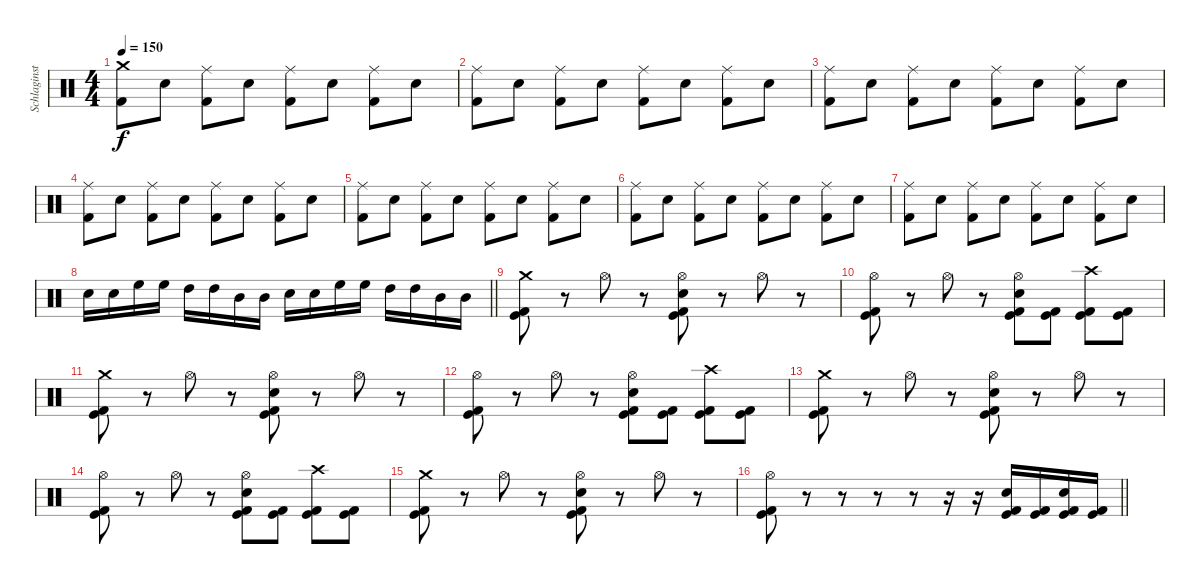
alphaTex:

\track ("Schlaginstrumente - Auswahl" "Schlaginst") {instrument percussion}
\staff {score}
\articulation defaults
\ts (4 4)
\tempo 150
\clef neutral
\ks c
("Crash medium (hit)" "Kick (hit) 2").8{dy f} "Electric Snare (hit)".8 ("Ride (middle)" "Kick (hit) 2").8 "Electric Snare (hit)".8 ("Ride (middle)" "Kick (hit) 2").8 "Electric Snare (hit)".8 ("Ride (middle)" "Kick (hit) 2").8 "Electric Snare (hit)".8 |
("Ride (middle)" "Kick (hit) 2").8 "Electric Snare (hit)".8 ("Ride (middle)" "Kick (hit) 2").8 "Electric Snare (hit)".8 ("Ride (middle)" "Kick (hit) 2").8 "Electric Snare (hit)".8 ("Ride (middle)" "Kick (hit) 2").8 "Electric Snare (hit)".8 |
("Ride (middle)" "Kick (hit) 2").8 "Electric Snare (hit)".8 ("Ride (middle)" "Kick (hit) 2").8 "Electric Snare (hit)".8 ("Ride (middle)" "Kick (hit) 2").8 "Electric Snare (hit)".8 ("Ride (middle)" "Kick (hit) 2").8 "Electric Snare (hit)".8 |
("Ride (middle)" "Kick (hit) 2").8 "Electric Snare (hit)".8 ("Ride (middle)" "Kick (hit) 2").8 "Electric Snare (hit)".8 ("Ride (middle)" "Kick (hit) 2").8 "Electric Snare (hit)".8 ("Ride (middle)" "Kick (hit) 2").8 "Electric Snare (hit)".8 |
("Ride (middle)" "Kick (hit) 2").8 "Electric Snare (hit)".8 ("Ride (middle)" "Kick (hit) 2").8 "Electric Snare (hit)".8 ("Ride (middle)" "Kick (hit) 2").8 "Electric Snare (hit)".8 ("Ride (middle)" "Kick (hit) 2").8 "Electric Snare (hit)".8 |
("Ride (middle)" "Kick (hit) 2").8 "Electric Snare (hit)".8 ("Ride (middle)" "Kick (hit) 2").8 "Electric Snare (hit)".8 ("Ride (middle)" "Kick (hit) 2").8 "Electric Snare (hit)".8 ("Ride (middle)" "Kick (hit) 2").8 "Electric Snare (hit)".8 |
("Ride (middle)" "Kick (hit) 2").8 "Electric Snare (hit)".8 ("Ride (middle)" "Kick (hit) 2").8 "Electric Snare (hit)".8 ("Ride (middle)" "Kick (hit) 2").8 "Electric Snare (hit)".8 ("Ride (middle)" "Kick (hit) 2").8 "Electric Snare (hit)".8 |
\barLineRight lightlight "Snare (hit) 2".16 "Snare (hit) 2".16 "High Floor Tom (hit)".16 "High Floor Tom (hit)".16 "High Tom (hit)".16 "High Tom (hit)".16 "Mid Tom (hit)".16 "Mid Tom (hit)".16 "Snare (hit) 2".16 "Snare (hit) 2".16 "High Floor Tom (hit)".16 "High Floor Tom (hit)".16 "High Tom (hit)".16 "High Tom (hit)".16 "Mid Tom (hit)".16 "Mid Tom (hit)".16
|
("Crash medium (hit)" "Kick (hit)" "Kick (hit) 2").8 r.8 "Hi-Hat (open)".8 r.8 ("Electric Snare (hit)" "Hi-Hat (open)" "Kick (hit)" "Kick (hit) 2").8 r.8 "Hi-Hat (open)".8 r.8 |
("Hi-Hat (open)" "Kick (hit)" "Kick (hit) 2").8 r.8 "Hi-Hat (open)".8 r.8 ("Electric Snare (hit)" "Hi-Hat (open)" "Kick (hit)" "Kick (hit) 2").8 ("Kick (hit)" "Kick (hit) 2").8 ("Crash high (hit)" "Kick (hit)" "Kick (hit) 2").8 ("Kick (hit)" "Kick (hit) 2").8 |
("Crash medium (hit)" "Kick (hit)" "Kick (hit) 2").8 r.8 "Hi-Hat (open)".8 r.8 ("Electric Snare (hit)" "Hi-Hat (open)" "Kick (hit)" "Kick (hit) 2").8 r.8 "Hi-Hat (open)".8 r.8 |
("Hi-Hat (open)" "Kick (hit)" "Kick (hit) 2").8 r.8 "Hi-Hat (open)".8 r.8 ("Electric Snare (hit)" "Hi-Hat (open)" "Kick (hit)" "Kick (hit) 2").8 ("Kick (hit)" "Kick (hit) 2").8 ("Crash high (hit)" "Kick (hit)" "Kick (hit) 2").8 ("Kick (hit)" "Kick (hit) 2").8 |
("Crash medium (hit)" "Kick (hit)" "Kick (hit) 2").8 r.8 "Hi-Hat (open)".8 r.8 ("Electric Snare (hit)" "Hi-Hat (open)" "Kick (hit)" "Kick (hit) 2").8 r.8 "Hi-Hat (open)".8 r.8 |
("Hi-Hat (open)" "Kick (hit)" "Kick (hit) 2").8 r.8 "Hi-Hat (open)".8 r.8 ("Electric Snare (hit)" "Hi-Hat (open)" "Kick (hit)" "Kick (hit) 2").8 ("Kick (hit)" "Kick (hit) 2").8 ("Crash high (hit)" "Kick (hit)" "Kick (hit) 2").8 ("Kick (hit)" "Kick (hit) 2").8 |
("Crash medium (hit)" "Kick (hit)" "Kick (hit) 2").8 r.8 "Hi-Hat (open)".8 r.8 ("Electric Snare (hit)" "Hi-Hat (open)" "Kick (hit)" "Kick (hit) 2").8 r.8 "Hi-Hat (open)".8 r.8 |
\barLineRight lightlight
("Hi-Hat (open)" "Kick (hit)" "Kick (hit) 2").8 r.8 r.8 r.8 r.8 r.16 r.16 ("Electric Snare (hit)" "Kick (hit)" "Kick (hit) 2").16 ("Kick (hit)" "Kick (hit) 2").16 ("Electric Snare (hit)" "Kick (hit)" "Kick (hit) 2").16 ("Kick (hit)" "Kick (hit) 2").16
